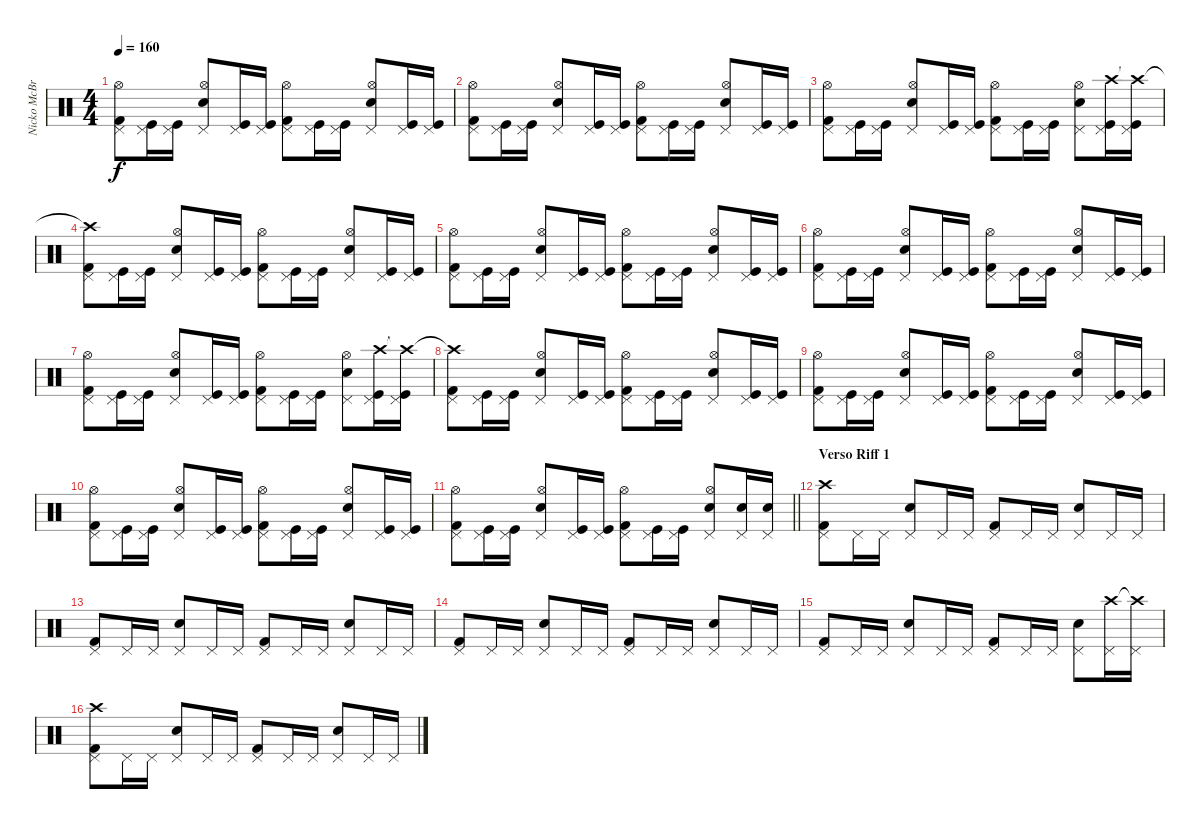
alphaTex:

\track ("Nicko McBrain" "Nicko McBr") {instrument percussion}
\staff {score}
\articulation defaults
\ts (4 4)
\tempo 160
\clef neutral
\ks c
("Kick (hit) 2" "Pedal Hi-Hat (hit)" "Hi-Hat (open)").8{dy f} ("Kick (hit)" "Pedal Hi-Hat (hit)").16 ("Kick (hit)" "Pedal Hi-Hat (hit)").16 ("Snare (hit) 2" "Pedal Hi-Hat (hit)" "Hi-Hat (open)").8 ("Kick (hit)" "Pedal Hi-Hat (hit)").16 ("Kick (hit)" "Pedal Hi-Hat (hit)").16 ("Kick (hit) 2" "Pedal Hi-Hat (hit)" "Hi-Hat (open)").8 ("Kick (hit)" "Pedal Hi-Hat (hit)").16 ("Kick (hit)" "Pedal Hi-Hat (hit)").16 ("Snare (hit) 2" "Pedal Hi-Hat (hit)" "Hi-Hat (open)").8 ("Kick (hit)" "Pedal Hi-Hat (hit)").16 ("Kick (hit)" "Pedal Hi-Hat (hit)").16 |
("Kick (hit) 2" "Pedal Hi-Hat (hit)" "Hi-Hat (open)").8 ("Kick (hit)" "Pedal Hi-Hat (hit)").16 ("Kick (hit)" "Pedal Hi-Hat (hit)").16 ("Snare (hit) 2" "Pedal Hi-Hat (hit)" "Hi-Hat (open)").8 ("Kick (hit)" "Pedal Hi-Hat (hit)").16 ("Kick (hit)" "Pedal Hi-Hat (hit)").16 ("Kick (hit) 2" "Pedal Hi-Hat (hit)" "Hi-Hat (open)").8 ("Kick (hit)" "Pedal Hi-Hat (hit)").16 ("Kick (hit)" "Pedal Hi-Hat (hit)").16 ("Snare (hit) 2" "Pedal Hi-Hat (hit)" "Hi-Hat (open)").8 ("Kick (hit)" "Pedal Hi-Hat (hit)").16 ("Kick (hit)" "Pedal Hi-Hat (hit)").16 |
("Kick (hit) 2" "Pedal Hi-Hat (hit)" "Hi-Hat (open)").8 ("Kick (hit)" "Pedal Hi-Hat (hit)").16 ("Kick (hit)" "Pedal Hi-Hat (hit)").16 ("Snare (hit) 2" "Pedal Hi-Hat (hit)" "Hi-Hat (open)").8 ("Kick (hit)" "Pedal Hi-Hat (hit)").16 ("Kick (hit)" "Pedal Hi-Hat (hit)").16 ("Kick (hit) 2" "Pedal Hi-Hat (hit)" "Hi-Hat (open)").8 ("Kick (hit)" "Pedal Hi-Hat (hit)").16 ("Kick (hit)" "Pedal Hi-Hat (hit)").16 ("Snare (hit) 2" "Pedal Hi-Hat (hit)" "Hi-Hat (open)").8 ("Kick (hit)" "Pedal Hi-Hat (hit)" "Crash high (hit)").16 ("Kick (hit)" "Pedal Hi-Hat (hit)" "Crash high (hit)"{t}).16 |
("Kick (hit) 2" "Pedal Hi-Hat (hit)" "Crash high (hit)"{t}).8 ("Kick (hit)" "Pedal Hi-Hat (hit)").16 ("Kick (hit)" "Pedal Hi-Hat (hit)").16 ("Snare (hit) 2" "Pedal Hi-Hat (hit)" "Hi-Hat (open)").8 ("Kick (hit)" "Pedal Hi-Hat (hit)").16 ("Kick (hit)" "Pedal Hi-Hat (hit)").16 ("Kick (hit) 2" "Pedal Hi-Hat (hit)" "Hi-Hat (open)").8 ("Kick (hit)" "Pedal Hi-Hat (hit)").16 ("Kick (hit)" "Pedal Hi-Hat (hit)").16 ("Snare (hit) 2" "Pedal Hi-Hat (hit)" "Hi-Hat (open)").8 ("Kick (hit)" "Pedal Hi-Hat (hit)").16 ("Kick (hit)" "Pedal Hi-Hat (hit)").16 |
("Kick (hit) 2" "Pedal Hi-Hat (hit)" "Hi-Hat (open)").8 ("Kick (hit)" "Pedal Hi-Hat (hit)").16 ("Kick (hit)" "Pedal Hi-Hat (hit)").16 ("Snare (hit) 2" "Pedal Hi-Hat (hit)" "Hi-Hat (open)").8 ("Kick (hit)" "Pedal Hi-Hat (hit)").16 ("Kick (hit)" "Pedal Hi-Hat (hit)").16 ("Kick (hit) 2" "Pedal Hi-Hat (hit)" "Hi-Hat (open)").8 ("Kick (hit)" "Pedal Hi-Hat (hit)").16 ("Kick (hit)" "Pedal Hi-Hat (hit)").16 ("Snare (hit) 2" "Pedal Hi-Hat (hit)" "Hi-Hat (open)").8 ("Kick (hit)" "Pedal Hi-Hat (hit)").16 ("Kick (hit)" "Pedal Hi-Hat (hit)").16 |
("Kick (hit) 2" "Pedal Hi-Hat (hit)" "Hi-Hat (open)").8 ("Kick (hit)" "Pedal Hi-Hat (hit)").16 ("Kick (hit)" "Pedal Hi-Hat (hit)").16 ("Snare (hit) 2" "Pedal Hi-Hat (hit)" "Hi-Hat (open)").8 ("Kick (hit)" "Pedal Hi-Hat (hit)").16 ("Kick (hit)" "Pedal Hi-Hat (hit)").16 ("Kick (hit) 2" "Pedal Hi-Hat (hit)" "Hi-Hat (open)").8 ("Kick (hit)" "Pedal Hi-Hat (hit)").16 ("Kick (hit)" "Pedal Hi-Hat (hit)").16 ("Snare (hit) 2" "Pedal Hi-Hat (hit)" "Hi-Hat (open)").8 ("Kick (hit)" "Pedal Hi-Hat (hit)").16 ("Kick (hit)" "Pedal Hi-Hat (hit)").16 |
("Kick (hit) 2" "Pedal Hi-Hat (hit)" "Hi-Hat (open)").8 ("Kick (hit)" "Pedal Hi-Hat (hit)").16 ("Kick (hit)" "Pedal Hi-Hat (hit)").16 ("Snare (hit) 2" "Pedal Hi-Hat (hit)" "Hi-Hat (open)").8 ("Kick (hit)" "Pedal Hi-Hat (hit)").16 ("Kick (hit)" "Pedal Hi-Hat (hit)").16 ("Kick (hit) 2" "Pedal Hi-Hat (hit)" "Hi-Hat (open)").8 ("Kick (hit)" "Pedal Hi-Hat (hit)").16 ("Kick (hit)" "Pedal Hi-Hat (hit)").16 ("Snare (hit) 2" "Pedal Hi-Hat (hit)" "Hi-Hat (open)").8 ("Kick (hit)" "Pedal Hi-Hat (hit)" "Crash high (hit)").16 ("Kick (hit)" "Pedal Hi-Hat (hit)" "Crash high (hit)"{t}).16 |
("Kick (hit) 2" "Pedal Hi-Hat (hit)" "Crash high (hit)"{t}).8 ("Kick (hit)" "Pedal Hi-Hat (hit)").16 ("Kick (hit)" "Pedal Hi-Hat (hit)").16 ("Snare (hit) 2" "Pedal Hi-Hat (hit)" "Hi-Hat (open)").8 ("Kick (hit)" "Pedal Hi-Hat (hit)").16 ("Kick (hit)" "Pedal Hi-Hat (hit)").16 ("Kick (hit) 2" "Pedal Hi-Hat (hit)" "Hi-Hat (open)").8 ("Kick (hit)" "Pedal Hi-Hat (hit)").16 ("Kick (hit)" "Pedal Hi-Hat (hit)").16 ("Snare (hit) 2" "Pedal Hi-Hat (hit)" "Hi-Hat (open)").8 ("Kick (hit)" "Pedal Hi-Hat (hit)").16 ("Kick (hit)" "Pedal Hi-Hat (hit)").16 |
("Kick (hit) 2" "Pedal Hi-Hat (hit)" "Hi-Hat (open)").8 ("Kick (hit)" "Pedal Hi-Hat (hit)").16 ("Kick (hit)" "Pedal Hi-Hat (hit)").16 ("Snare (hit) 2" "Pedal Hi-Hat (hit)" "Hi-Hat (open)").8 ("Kick (hit)" "Pedal Hi-Hat (hit)").16 ("Kick (hit)" "Pedal Hi-Hat (hit)").16 ("Kick (hit) 2" "Pedal Hi-Hat (hit)" "Hi-Hat (open)").8 ("Kick (hit)" "Pedal Hi-Hat (hit)").16 ("Kick (hit)" "Pedal Hi-Hat (hit)").16 ("Snare (hit) 2" "Pedal Hi-Hat (hit)" "Hi-Hat (open)").8 ("Kick (hit)" "Pedal Hi-Hat (hit)").16 ("Kick (hit)" "Pedal Hi-Hat (hit)").16 |
("Kick (hit) 2" "Pedal Hi-Hat (hit)" "Hi-Hat (open)").8 ("Kick (hit)" "Pedal Hi-Hat (hit)").16 ("Kick (hit)" "Pedal Hi-Hat (hit)").16 ("Snare (hit) 2" "Pedal Hi-Hat (hit)" "Hi-Hat (open)").8 ("Kick (hit)" "Pedal Hi-Hat (hit)").16 ("Kick (hit)" "Pedal Hi-Hat (hit)").16 ("Kick (hit) 2" "Pedal Hi-Hat (hit)" "Hi-Hat (open)").8 ("Kick (hit)" "Pedal Hi-Hat (hit)").16 ("Kick (hit)" "Pedal Hi-Hat (hit)").16 ("Snare (hit) 2" "Pedal Hi-Hat (hit)" "Hi-Hat (open)").8 ("Kick (hit)" "Pedal Hi-Hat (hit)").16 ("Kick (hit)" "Pedal Hi-Hat (hit)").16 |
\barLineRight lightlight
("Kick (hit) 2" "Pedal Hi-Hat (hit)" "Hi-Hat (open)").8 ("Kick (hit)" "Pedal Hi-Hat (hit)").16 ("Kick (hit)" "Pedal Hi-Hat (hit)").16 ("Snare (hit) 2" "Pedal Hi-Hat (hit)" "Hi-Hat (open)").8 ("Kick (hit)" "Pedal Hi-Hat (hit)").16 ("Kick (hit)" "Pedal Hi-Hat (hit)").16 ("Kick (hit) 2" "Pedal Hi-Hat (hit)" "Hi-Hat (open)").8 ("Kick (hit)" "Pedal Hi-Hat (hit)").16 ("Kick (hit)" "Pedal Hi-Hat (hit)").16 ("Snare (hit) 2" "Pedal Hi-Hat (hit)" "Hi-Hat (open)").8 ("Snare (hit) 2" "Pedal Hi-Hat (hit)").16 ("Snare (hit) 2" "Pedal Hi-Hat (hit)").16 |
\section ("" "Verso Riff 1")
("Kick (hit) 2" "Pedal Hi-Hat (hit)" "Crash high (hit)").8 "Pedal Hi-Hat (hit)".16 "Pedal Hi-Hat (hit)".16 ("Snare (hit) 2" "Pedal Hi-Hat (hit)").8 "Pedal Hi-Hat (hit)".16 "Pedal Hi-Hat (hit)".16 ("Kick (hit) 2" "Pedal Hi-Hat (hit)").8 "Pedal Hi-Hat (hit)".16 "Pedal Hi-Hat (hit)".16 ("Snare (hit) 2" "Pedal Hi-Hat (hit)").8 "Pedal Hi-Hat (hit)".16 "Pedal Hi-Hat (hit)".16 |
("Kick (hit) 2" "Pedal Hi-Hat (hit)").8 "Pedal Hi-Hat (hit)".16 "Pedal Hi-Hat (hit)".16 ("Snare (hit) 2" "Pedal Hi-Hat (hit)").8 "Pedal Hi-Hat (hit)".16 "Pedal Hi-Hat (hit)".16 ("Kick (hit) 2" "Pedal Hi-Hat (hit)").8 "Pedal Hi-Hat (hit)".16 "Pedal Hi-Hat (hit)".16 ("Snare (hit) 2" "Pedal Hi-Hat (hit)").8 "Pedal Hi-Hat (hit)".16 "Pedal Hi-Hat (hit)".16 |
("Kick (hit) 2" "Pedal Hi-Hat (hit)").8 "Pedal Hi-Hat (hit)".16 "Pedal Hi-Hat (hit)".16 ("Snare (hit) 2" "Pedal Hi-Hat (hit)").8 "Pedal Hi-Hat (hit)".16 "Pedal Hi-Hat (hit)".16 ("Kick (hit) 2" "Pedal Hi-Hat (hit)").8 "Pedal Hi-Hat (hit)".16 "Pedal Hi-Hat (hit)".16 ("Snare (hit) 2" "Pedal Hi-Hat (hit)").8 "Pedal Hi-Hat (hit)".16 "Pedal Hi-Hat (hit)".16 |
("Kick (hit) 2" "Pedal Hi-Hat (hit)").8 "Pedal Hi-Hat (hit)".16 "Pedal Hi-Hat (hit)".16 ("Snare (hit) 2" "Pedal Hi-Hat (hit)").8 "Pedal Hi-Hat (hit)".16 "Pedal Hi-Hat (hit)".16 ("Kick (hit) 2" "Pedal Hi-Hat (hit)").8 "Pedal Hi-Hat (hit)".16 "Pedal Hi-Hat (hit)".16 ("Snare (hit) 2" "Pedal Hi-Hat (hit)").8 ("Pedal Hi-Hat (hit)" "Crash high (hit)").16 ("Pedal Hi-Hat (hit)" "Crash high (hit)"{t}).16 |
("Kick (hit) 2" "Pedal Hi-Hat (hit)" "Crash high (hit)").8 "Pedal Hi-Hat (hit)".16 "Pedal Hi-Hat (hit)".16 ("Snare (hit) 2" "Pedal Hi-Hat (hit)").8 "Pedal Hi-Hat (hit)".16 "Pedal Hi-Hat (hit)".16 ("Kick (hit) 2" "Pedal Hi-Hat (hit)").8 "Pedal Hi-Hat (hit)".16 "Pedal Hi-Hat (hit)".16 ("Snare (hit) 2" "Pedal Hi-Hat (hit)").8 "Pedal Hi-Hat (hit)".16 "Pedal Hi-Hat (hit)".16
